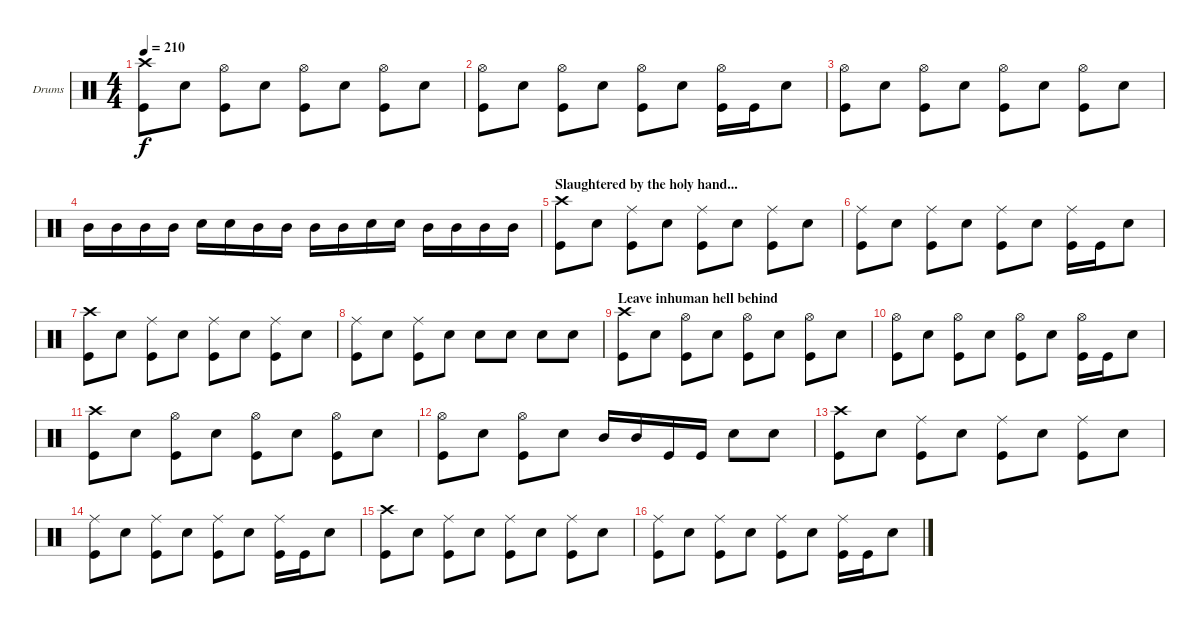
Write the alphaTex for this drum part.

\defaultSystemsLayout 4
\bracketExtendMode groupsimilarinstruments
\firstSystemTrackNameOrientation horizontal
\otherSystemsTrackNameOrientation horizontal
\track ("Markus Freiwald" "Drums") {instrument percussion}
\staff {score}
\articulation defaults
\ts (4 4)
\tempo 210
\clef neutral
\scale
0.5
\ks c
("Crash high (hit)" "Kick (hit)").8{dy f} "Snare (hit) 2".8 ("Hi-Hat (open)" "Kick (hit)").8 "Snare (hit) 2".8 ("Hi-Hat (open)" "Kick (hit)").8 "Snare (hit) 2".8 ("Hi-Hat (open)" "Kick (hit)").8 "Snare (hit) 2".8 |
\scale
0.5 ("Hi-Hat (open)" "Kick (hit)").8 "Snare (hit) 2".8 ("Hi-Hat (open)" "Kick (hit)").8 "Snare (hit) 2".8 ("Hi-Hat (open)" "Kick (hit)").8 "Snare (hit) 2".8 ("Hi-Hat (open)" "Kick (hit)").16 "Kick (hit)".16 "Snare (hit) 2".8 |
\scale
0.5 ("Kick (hit)" "Hi-Hat (open)").8 "Snare (hit) 2".8 ("Hi-Hat (open)" "Kick (hit)").8 "Snare (hit) 2".8 ("Hi-Hat (open)" "Kick (hit)").8 "Snare (hit) 2".8 ("Hi-Hat (open)" "Kick (hit)").8 "Snare (hit) 2".8 |
\scale
0.5 "Mid Tom (hit)".16 "Mid Tom (hit)".16 "Mid Tom (hit)".16 "Mid Tom (hit)".16 "Snare (hit) 2".16 "Snare (hit) 2".16 "Mid Tom (hit)".16 "Mid Tom (hit)".16 "Mid Tom (hit)".16 "Mid Tom (hit)".16 "Snare (hit) 2".16 "Snare (hit) 2".16 "Mid Tom (hit)".16 "Mid Tom (hit)".16 "Mid Tom (hit)".16 "Mid Tom (hit)".16 |
\section ("" "Slaughtered by the holy hand...")
\scale
0.5 ("Crash high (hit)" "Kick (hit)").8 "Snare (hit) 2".8 ("Ride (middle)" "Kick (hit)").8 "Snare (hit) 2".8 ("Ride (middle)" "Kick (hit)").8 "Snare (hit) 2".8 ("Ride (middle)" "Kick (hit)").8 "Snare (hit) 2".8 |
\scale
0.5 ("Ride (middle)" "Kick (hit)").8 "Snare (hit) 2".8 ("Ride (middle)" "Kick (hit)").8 "Snare (hit) 2".8 ("Ride (middle)" "Kick (hit)").8 "Snare (hit) 2".8 ("Ride (middle)" "Kick (hit)").16 "Kick (hit)".16 "Snare (hit) 2".8 |
\scale
0.5 ("Crash high (hit)" "Kick (hit)").8 "Snare (hit) 2".8 ("Ride (middle)" "Kick (hit)").8 "Snare (hit) 2".8 ("Ride (middle)" "Kick (hit)").8 "Snare (hit) 2".8 ("Ride (middle)" "Kick (hit)").8 "Snare (hit) 2".8 |
\scale
0.5 ("Ride (middle)" "Kick (hit)").8 "Snare (hit) 2".8 ("Ride (middle)" "Kick (hit)").8 "Snare (hit) 2".8 "Snare (hit) 2".8 "Snare (hit) 2".8 "Snare (hit) 2".8 "Snare (hit) 2".8 |
\section ("" "Leave inhuman hell behind")
\scale
0.5 ("Crash high (hit)" "Kick (hit)").8 "Snare (hit) 2".8 ("Hi-Hat (open)" "Kick (hit)").8 "Snare (hit) 2".8 ("Hi-Hat (open)" "Kick (hit)").8 "Snare (hit) 2".8 ("Hi-Hat (open)" "Kick (hit)").8 "Snare (hit) 2".8 |
\scale
0.5 ("Hi-Hat (open)" "Kick (hit)").8 "Snare (hit) 2".8 ("Hi-Hat (open)" "Kick (hit)").8 "Snare (hit) 2".8 ("Hi-Hat (open)" "Kick (hit)").8 "Snare (hit) 2".8 ("Hi-Hat (open)" "Kick (hit)").16 "Kick (hit)".16 "Snare (hit) 2".8 |
\scale
0.5 ("Crash high (hit)" "Kick (hit)").8 "Snare (hit) 2".8 ("Hi-Hat (open)" "Kick (hit)").8 "Snare (hit) 2".8 ("Hi-Hat (open)" "Kick (hit)").8 "Snare (hit) 2".8 ("Hi-Hat (open)" "Kick (hit)").8 "Snare (hit) 2".8 |
\scale
0.5 ("Hi-Hat (open)" "Kick (hit)").8 "Snare (hit) 2".8 ("Hi-Hat (open)" "Kick (hit)").8 "Snare (hit) 2".8 "Mid Tom (hit)".16 "Mid Tom (hit)".16 "Kick (hit)".16 "Kick (hit)".16 "Snare (hit) 2".8 "Snare (hit) 2".8 |
\scale
0.5 ("Crash high (hit)" "Kick (hit)").8 "Snare (hit) 2".8 ("Ride (middle)" "Kick (hit)").8 "Snare (hit) 2".8 ("Ride (middle)" "Kick (hit)").8 "Snare (hit) 2".8 ("Ride (middle)" "Kick (hit)").8 "Snare (hit) 2".8 |
\scale
0.5 ("Ride (middle)" "Kick (hit)").8 "Snare (hit) 2".8 ("Ride (middle)" "Kick (hit)").8 "Snare (hit) 2".8 ("Ride (middle)" "Kick (hit)").8 "Snare (hit) 2".8 ("Ride (middle)" "Kick (hit)").16 "Kick (hit)".16 "Snare (hit) 2".8 |
\scale
0.5 ("Crash high (hit)" "Kick (hit)").8 "Snare (hit) 2".8 ("Ride (middle)" "Kick (hit)").8 "Snare (hit) 2".8 ("Ride (middle)" "Kick (hit)").8 "Snare (hit) 2".8 ("Ride (middle)" "Kick (hit)").8 "Snare (hit) 2".8 |
\scale
0.5 ("Ride (middle)" "Kick (hit)").8 "Snare (hit) 2".8 ("Ride (middle)" "Kick (hit)").8 "Snare (hit) 2".8 ("Ride (middle)" "Kick (hit)").8 "Snare (hit) 2".8 ("Ride (middle)" "Kick (hit)").16 "Kick (hit)".16 "Snare (hit) 2".8
